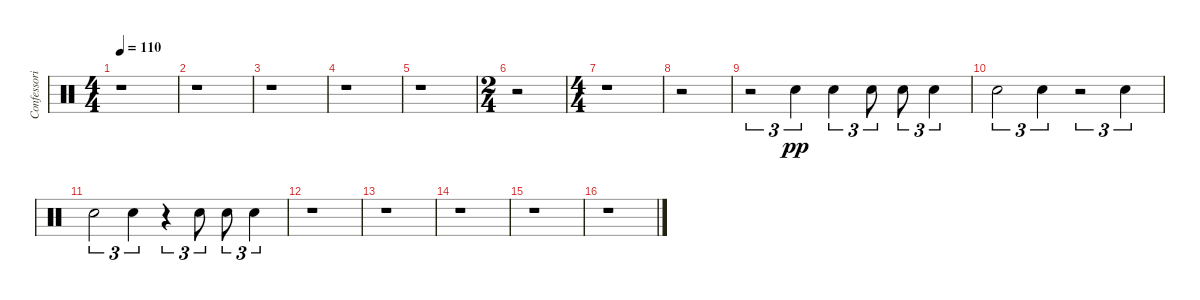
\track ("Confessori" "Confessori") {instrument percussion}
\staff {score}
\articulation defaults
\ts (4 4)
\tempo 110
\clef neutral
\ks c
r.1{dy pp} |
r.1 |
r.1 |
r.1 |
r.1 |
\ts (2 4)
r.2 |
\ts (4 4)
r.1 |
r.2 |
r.2{tu (3 2)} "Electric Snare (hit)".4{tu (3 2)} "Electric Snare (hit)".4{tu (3 2)} "Electric Snare (hit)".8{tu (3 2)} "Electric Snare (hit)".8{tu (3 2)} "Electric Snare (hit)".4{tu (3 2)} |
"Electric Snare (hit)".2{tu (3 2)} "Electric Snare (hit)".4{tu (3 2)} r.2{tu (3 2)} "Electric Snare (hit)".4{tu (3 2)} |
"Electric Snare (hit)".2{tu (3 2)} "Electric Snare (hit)".4{tu (3 2)} r.4{tu (3 2)} "Electric Snare (hit)".8{tu (3 2)} "Electric Snare (hit)".8{tu (3 2)} "Electric Snare (hit)".4{tu (3 2)} |
r.1 |
r.1 |
r.1 |
r.1 |
r.1
